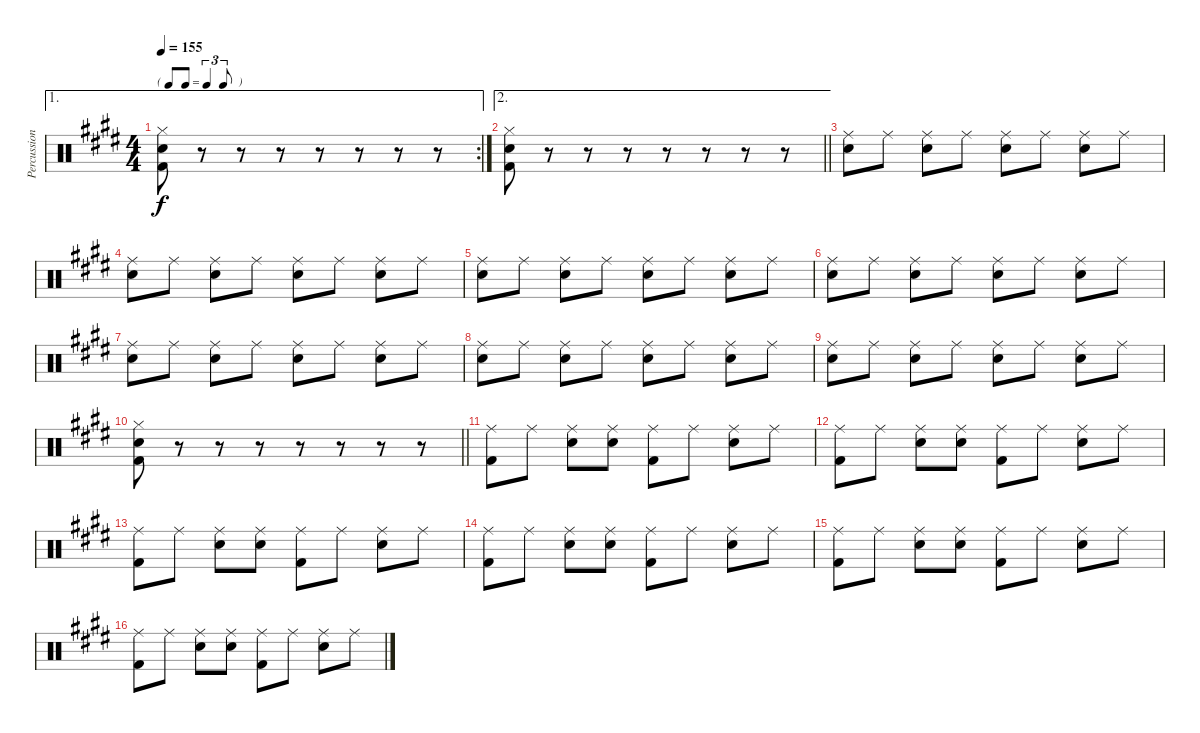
\track ("Percussion" "Percussion") {instrument percussion}
\staff {score}
\articulation defaults
\ae 1
\rc 2
\ts (4 4)
\tf triplet8th
\tempo 155
\clef neutral
\ks e
("Hi-Hat (closed)" "Snare (hit) 2" "Kick (hit) 2").8{dy f} r.8 r.8 r.8 r.8 r.8 r.8 r.8 |
\ae 2
\barLineRight lightlight
("Hi-Hat (closed)" "Snare (hit) 2" "Kick (hit) 2").8 r.8 r.8 r.8 r.8 r.8 r.8 r.8 |
("Ride (middle)" "Snare (hit) 2").8 "Ride (middle)".8 ("Ride (middle)" "Snare (hit) 2").8 "Ride (middle)".8 ("Ride (middle)" "Snare (hit) 2").8 "Ride (middle)".8 ("Ride (middle)" "Snare (hit) 2").8 "Ride (middle)".8 |
("Ride (middle)" "Snare (hit) 2").8 "Ride (middle)".8 ("Ride (middle)" "Snare (hit) 2").8 "Ride (middle)".8 ("Ride (middle)" "Snare (hit) 2").8 "Ride (middle)".8 ("Ride (middle)" "Snare (hit) 2").8 "Ride (middle)".8 |
("Ride (middle)" "Snare (hit) 2").8 "Ride (middle)".8 ("Ride (middle)" "Snare (hit) 2").8 "Ride (middle)".8 ("Ride (middle)" "Snare (hit) 2").8 "Ride (middle)".8 ("Ride (middle)" "Snare (hit) 2").8 "Ride (middle)".8 |
("Ride (middle)" "Snare (hit) 2").8 "Ride (middle)".8 ("Ride (middle)" "Snare (hit) 2").8 "Ride (middle)".8 ("Ride (middle)" "Snare (hit) 2").8 "Ride (middle)".8 ("Ride (middle)" "Snare (hit) 2").8 "Ride (middle)".8 |
("Ride (middle)" "Snare (hit) 2").8 "Ride (middle)".8 ("Ride (middle)" "Snare (hit) 2").8 "Ride (middle)".8 ("Ride (middle)" "Snare (hit) 2").8 "Ride (middle)".8 ("Ride (middle)" "Snare (hit) 2").8 "Ride (middle)".8 |
("Ride (middle)" "Snare (hit) 2").8 "Ride (middle)".8 ("Ride (middle)" "Snare (hit) 2").8 "Ride (middle)".8 ("Ride (middle)" "Snare (hit) 2").8 "Ride (middle)".8 ("Ride (middle)" "Snare (hit) 2").8 "Ride (middle)".8 |
("Ride (middle)" "Snare (hit) 2").8 "Ride (middle)".8 ("Ride (middle)" "Snare (hit) 2").8 "Ride (middle)".8 ("Ride (middle)" "Snare (hit) 2").8 "Ride (middle)".8 ("Ride (middle)" "Snare (hit) 2").8 "Ride (middle)".8 |
\barLineRight lightlight
("Hi-Hat (closed)" "Snare (hit) 2" "Kick (hit) 2").8 r.8 r.8 r.8 r.8 r.8 r.8 r.8 |
("Ride (middle)" "Kick (hit) 2").8 "Ride (middle)".8 ("Ride (middle)" "Snare (hit) 2").8 ("Ride (middle)" "Snare (hit) 2").8 ("Ride (middle)" "Kick (hit) 2").8 "Ride (middle)".8 ("Ride (middle)" "Snare (hit) 2").8 "Ride (middle)".8 |
("Ride (middle)" "Kick (hit) 2").8 "Ride (middle)".8 ("Ride (middle)" "Snare (hit) 2").8 ("Ride (middle)" "Snare (hit) 2").8 ("Ride (middle)" "Kick (hit) 2").8 "Ride (middle)".8 ("Ride (middle)" "Snare (hit) 2").8 "Ride (middle)".8 |
("Ride (middle)" "Kick (hit) 2").8 "Ride (middle)".8 ("Ride (middle)" "Snare (hit) 2").8 ("Ride (middle)" "Snare (hit) 2").8 ("Ride (middle)" "Kick (hit) 2").8 "Ride (middle)".8 ("Ride (middle)" "Snare (hit) 2").8 "Ride (middle)".8 |
("Ride (middle)" "Kick (hit) 2").8 "Ride (middle)".8 ("Ride (middle)" "Snare (hit) 2").8 ("Ride (middle)" "Snare (hit) 2").8 ("Ride (middle)" "Kick (hit) 2").8 "Ride (middle)".8 ("Ride (middle)" "Snare (hit) 2").8 "Ride (middle)".8 |
("Ride (middle)" "Kick (hit) 2").8 "Ride (middle)".8 ("Ride (middle)" "Snare (hit) 2").8 ("Ride (middle)" "Snare (hit) 2").8 ("Ride (middle)" "Kick (hit) 2").8 "Ride (middle)".8 ("Ride (middle)" "Snare (hit) 2").8 "Ride (middle)".8 |
("Ride (middle)" "Kick (hit) 2").8 "Ride (middle)".8 ("Ride (middle)" "Snare (hit) 2").8 ("Ride (middle)" "Snare (hit) 2").8 ("Ride (middle)" "Kick (hit) 2").8 "Ride (middle)".8 ("Ride (middle)" "Snare (hit) 2").8 "Ride (middle)".8
